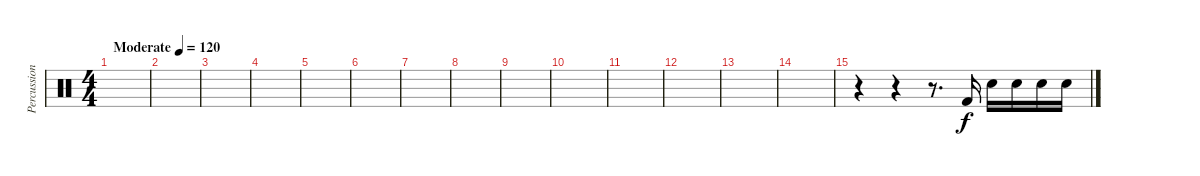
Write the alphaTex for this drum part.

\track ("Percussion" "Percussion") {instrument percussion}
\staff {score}
\articulation defaults
\ts (4 4)
\tempo (120 "Moderate")
\clef neutral
\ks c
|
|
|
|
|
|
|
|
|
|
|
|
|
|
r.4 r.4 r.8{d} "Kick (hit) 2".16 "Snare (hit) 2".16 "Snare (hit) 2".16 "Snare (hit) 2".16 "Snare (hit) 2".16
